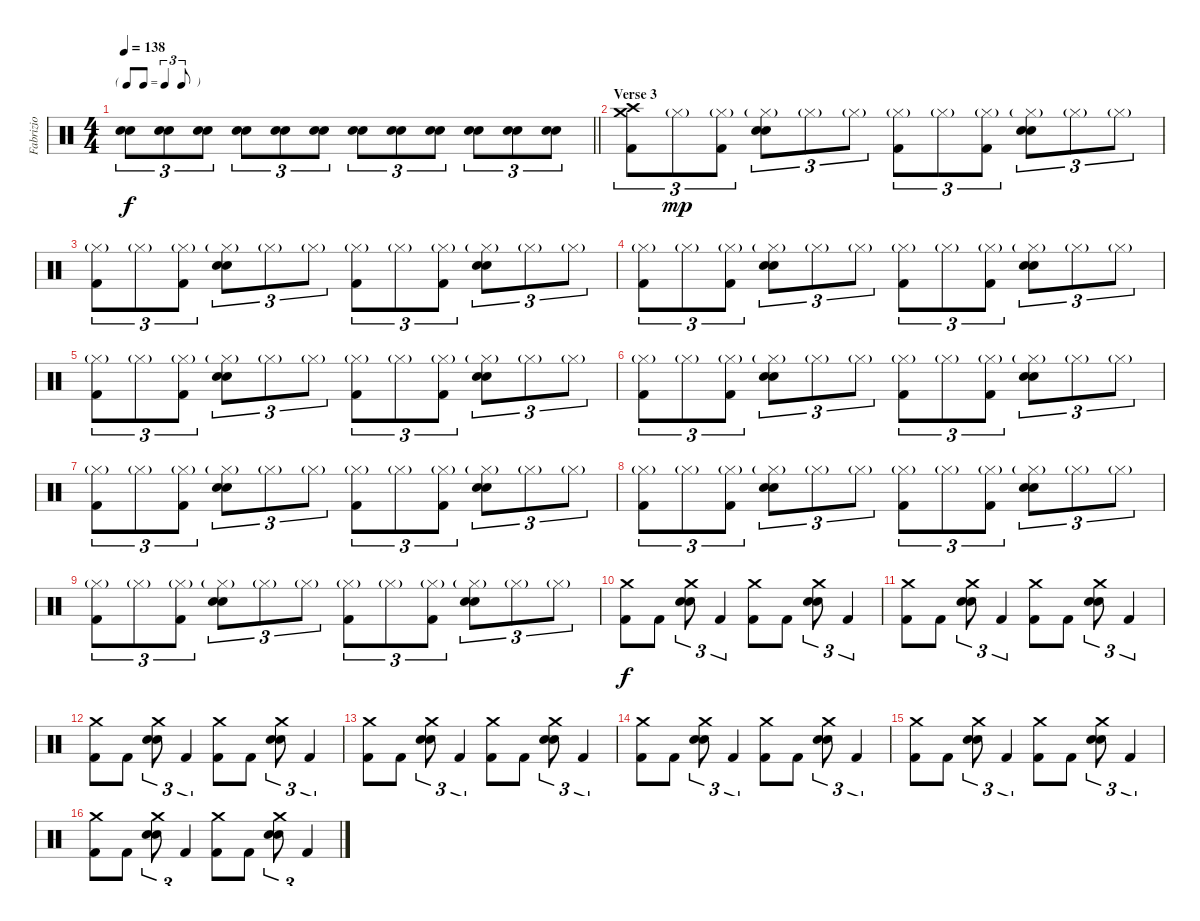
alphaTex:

\track ("Fabrizio" "Fabrizio") {instrument percussion}
\staff {score}
\articulation defaults
\ts (4 4)
\tf triplet8th
\tempo 138
\clef neutral
\barLineRight lightlight
\ks c
("Electric Snare (hit)" "Snare (hit) 2").8{tu (3 2) dy f} ("Electric Snare (hit)" "Snare (hit) 2").8{tu (3 2)} ("Electric Snare (hit)" "Snare (hit) 2").8{tu (3 2)} ("Electric Snare (hit)" "Snare (hit) 2").8{tu (3 2)} ("Electric Snare (hit)" "Snare (hit) 2").8{tu (3 2)} ("Electric Snare (hit)" "Snare (hit) 2").8{tu (3 2)} ("Electric Snare (hit)" "Snare (hit) 2").8{tu (3 2)} ("Electric Snare (hit)" "Snare (hit) 2").8{tu (3 2)} ("Electric Snare (hit)" "Snare (hit) 2").8{tu (3 2)} ("Electric Snare (hit)" "Snare (hit) 2").8{tu (3 2)} ("Electric Snare (hit)" "Snare (hit) 2").8{tu (3 2)} ("Electric Snare (hit)" "Snare (hit) 2").8{tu (3 2)} |
\section ("" "Verse 3")
("Crash medium (hit)" "Crash high (hit)" "Kick (hit) 2").8{tu (3 2)} "Hi-Hat (closed)"{g}.8{tu (3 2) dy mp} ("Hi-Hat (closed)"{g} "Kick (hit) 2").8{tu (3 2)} ("Hi-Hat (closed)"{g} "Electric Snare (hit)" "Snare (hit) 2").8{tu (3 2)} "Hi-Hat (closed)"{g}.8{tu (3 2)} "Hi-Hat (closed)"{g}.8{tu (3 2)} ("Hi-Hat (closed)"{g} "Kick (hit) 2").8{tu (3 2)} "Hi-Hat (closed)"{g}.8{tu (3 2)} ("Hi-Hat (closed)"{g} "Kick (hit) 2").8{tu (3 2)} ("Hi-Hat (closed)"{g} "Electric Snare (hit)" "Snare (hit) 2").8{tu (3 2)} "Hi-Hat (closed)"{g}.8{tu (3 2)} "Hi-Hat (closed)"{g}.8{tu (3 2)} |
("Hi-Hat (closed)"{g} "Kick (hit) 2").8{tu (3 2)} "Hi-Hat (closed)"{g}.8{tu (3 2)} ("Hi-Hat (closed)"{g} "Kick (hit) 2").8{tu (3 2)} ("Hi-Hat (closed)"{g} "Electric Snare (hit)" "Snare (hit) 2").8{tu (3 2)} "Hi-Hat (closed)"{g}.8{tu (3 2)} "Hi-Hat (closed)"{g}.8{tu (3 2)} ("Hi-Hat (closed)"{g} "Kick (hit) 2").8{tu (3 2)} "Hi-Hat (closed)"{g}.8{tu (3 2)} ("Hi-Hat (closed)"{g} "Kick (hit) 2").8{tu (3 2)} ("Hi-Hat (closed)"{g} "Electric Snare (hit)" "Snare (hit) 2").8{tu (3 2)} "Hi-Hat (closed)"{g}.8{tu (3 2)} "Hi-Hat (closed)"{g}.8{tu (3 2)} |
("Hi-Hat (closed)"{g} "Kick (hit) 2").8{tu (3 2)} "Hi-Hat (closed)"{g}.8{tu (3 2)} ("Hi-Hat (closed)"{g} "Kick (hit) 2").8{tu (3 2)} ("Hi-Hat (closed)"{g} "Electric Snare (hit)" "Snare (hit) 2").8{tu (3 2)} "Hi-Hat (closed)"{g}.8{tu (3 2)} "Hi-Hat (closed)"{g}.8{tu (3 2)} ("Hi-Hat (closed)"{g} "Kick (hit) 2").8{tu (3 2)} "Hi-Hat (closed)"{g}.8{tu (3 2)} ("Hi-Hat (closed)"{g} "Kick (hit) 2").8{tu (3 2)} ("Hi-Hat (closed)"{g} "Electric Snare (hit)" "Snare (hit) 2").8{tu (3 2)} "Hi-Hat (closed)"{g}.8{tu (3 2)} "Hi-Hat (closed)"{g}.8{tu (3 2)} |
("Hi-Hat (closed)"{g} "Kick (hit) 2").8{tu (3 2)} "Hi-Hat (closed)"{g}.8{tu (3 2)} ("Hi-Hat (closed)"{g} "Kick (hit) 2").8{tu (3 2)} ("Hi-Hat (closed)"{g} "Electric Snare (hit)" "Snare (hit) 2").8{tu (3 2)} "Hi-Hat (closed)"{g}.8{tu (3 2)} "Hi-Hat (closed)"{g}.8{tu (3 2)} ("Hi-Hat (closed)"{g} "Kick (hit) 2").8{tu (3 2)} "Hi-Hat (closed)"{g}.8{tu (3 2)} ("Hi-Hat (closed)"{g} "Kick (hit) 2").8{tu (3 2)} ("Hi-Hat (closed)"{g} "Electric Snare (hit)" "Snare (hit) 2").8{tu (3 2)} "Hi-Hat (closed)"{g}.8{tu (3 2)} "Hi-Hat (closed)"{g}.8{tu (3 2)} |
("Hi-Hat (closed)"{g} "Kick (hit) 2").8{tu (3 2)} "Hi-Hat (closed)"{g}.8{tu (3 2)} ("Hi-Hat (closed)"{g} "Kick (hit) 2").8{tu (3 2)} ("Hi-Hat (closed)"{g} "Electric Snare (hit)" "Snare (hit) 2").8{tu (3 2)} "Hi-Hat (closed)"{g}.8{tu (3 2)} "Hi-Hat (closed)"{g}.8{tu (3 2)} ("Hi-Hat (closed)"{g} "Kick (hit) 2").8{tu (3 2)} "Hi-Hat (closed)"{g}.8{tu (3 2)} ("Hi-Hat (closed)"{g} "Kick (hit) 2").8{tu (3 2)} ("Hi-Hat (closed)"{g} "Electric Snare (hit)" "Snare (hit) 2").8{tu (3 2)} "Hi-Hat (closed)"{g}.8{tu (3 2)} "Hi-Hat (closed)"{g}.8{tu (3 2)} |
("Hi-Hat (closed)"{g} "Kick (hit) 2").8{tu (3 2)} "Hi-Hat (closed)"{g}.8{tu (3 2)} ("Hi-Hat (closed)"{g} "Kick (hit) 2").8{tu (3 2)} ("Hi-Hat (closed)"{g} "Electric Snare (hit)" "Snare (hit) 2").8{tu (3 2)} "Hi-Hat (closed)"{g}.8{tu (3 2)} "Hi-Hat (closed)"{g}.8{tu (3 2)} ("Hi-Hat (closed)"{g} "Kick (hit) 2").8{tu (3 2)} "Hi-Hat (closed)"{g}.8{tu (3 2)} ("Hi-Hat (closed)"{g} "Kick (hit) 2").8{tu (3 2)} ("Hi-Hat (closed)"{g} "Electric Snare (hit)" "Snare (hit) 2").8{tu (3 2)} "Hi-Hat (closed)"{g}.8{tu (3 2)} "Hi-Hat (closed)"{g}.8{tu (3 2)} |
("Hi-Hat (closed)"{g} "Kick (hit) 2").8{tu (3 2)} "Hi-Hat (closed)"{g}.8{tu (3 2)} ("Hi-Hat (closed)"{g} "Kick (hit) 2").8{tu (3 2)} ("Hi-Hat (closed)"{g} "Electric Snare (hit)" "Snare (hit) 2").8{tu (3 2)} "Hi-Hat (closed)"{g}.8{tu (3 2)} "Hi-Hat (closed)"{g}.8{tu (3 2)} ("Hi-Hat (closed)"{g} "Kick (hit) 2").8{tu (3 2)} "Hi-Hat (closed)"{g}.8{tu (3 2)} ("Hi-Hat (closed)"{g} "Kick (hit) 2").8{tu (3 2)} ("Hi-Hat (closed)"{g} "Electric Snare (hit)" "Snare (hit) 2").8{tu (3 2)} "Hi-Hat (closed)"{g}.8{tu (3 2)} "Hi-Hat (closed)"{g}.8{tu (3 2)} |
("Hi-Hat (closed)"{g} "Kick (hit) 2").8{tu (3 2)} "Hi-Hat (closed)"{g}.8{tu (3 2)} ("Hi-Hat (closed)"{g} "Kick (hit) 2").8{tu (3 2)} ("Hi-Hat (closed)"{g} "Electric Snare (hit)" "Snare (hit) 2").8{tu (3 2)} "Hi-Hat (closed)"{g}.8{tu (3 2)} "Hi-Hat (closed)"{g}.8{tu (3 2)} ("Hi-Hat (closed)"{g} "Kick (hit) 2").8{tu (3 2)} "Hi-Hat (closed)"{g}.8{tu (3 2)} ("Hi-Hat (closed)"{g} "Kick (hit) 2").8{tu (3 2)} ("Hi-Hat (closed)"{g} "Electric Snare (hit)" "Snare (hit) 2").8{tu (3 2)} "Hi-Hat (closed)"{g}.8{tu (3 2)} "Hi-Hat (closed)"{g}.8{tu (3 2)} |
("Crash medium (hit)" "Kick (hit) 2").8{dy f} "Kick (hit) 2".8 ("Crash medium (hit)" "Electric Snare (hit)" "Snare (hit) 2").8{tu (3 2)} "Kick (hit) 2".4{tu (3 2)} ("Crash medium (hit)" "Kick (hit) 2").8 "Kick (hit) 2".8 ("Crash medium (hit)" "Electric Snare (hit)" "Snare (hit) 2").8{tu (3 2)} "Kick (hit) 2".4{tu (3 2)} |
("Crash medium (hit)" "Kick (hit) 2").8 "Kick (hit) 2".8 ("Crash medium (hit)" "Electric Snare (hit)" "Snare (hit) 2").8{tu (3 2)} "Kick (hit) 2".4{tu (3 2)} ("Crash medium (hit)" "Kick (hit) 2").8 "Kick (hit) 2".8 ("Crash medium (hit)" "Electric Snare (hit)" "Snare (hit) 2").8{tu (3 2)} "Kick (hit) 2".4{tu (3 2)} |
("Crash medium (hit)" "Kick (hit) 2").8 "Kick (hit) 2".8 ("Crash medium (hit)" "Electric Snare (hit)" "Snare (hit) 2").8{tu (3 2)} "Kick (hit) 2".4{tu (3 2)} ("Crash medium (hit)" "Kick (hit) 2").8 "Kick (hit) 2".8 ("Crash medium (hit)" "Electric Snare (hit)" "Snare (hit) 2").8{tu (3 2)} "Kick (hit) 2".4{tu (3 2)} |
("Crash medium (hit)" "Kick (hit) 2").8 "Kick (hit) 2".8 ("Crash medium (hit)" "Electric Snare (hit)" "Snare (hit) 2").8{tu (3 2)} "Kick (hit) 2".4{tu (3 2)} ("Crash medium (hit)" "Kick (hit) 2").8 "Kick (hit) 2".8 ("Crash medium (hit)" "Electric Snare (hit)" "Snare (hit) 2").8{tu (3 2)} "Kick (hit) 2".4{tu (3 2)} |
("Crash medium (hit)" "Kick (hit) 2").8 "Kick (hit) 2".8 ("Crash medium (hit)" "Electric Snare (hit)" "Snare (hit) 2").8{tu (3 2)} "Kick (hit) 2".4{tu (3 2)} ("Crash medium (hit)" "Kick (hit) 2").8 "Kick (hit) 2".8 ("Crash medium (hit)" "Electric Snare (hit)" "Snare (hit) 2").8{tu (3 2)} "Kick (hit) 2".4{tu (3 2)} |
("Crash medium (hit)" "Kick (hit) 2").8 "Kick (hit) 2".8 ("Crash medium (hit)" "Electric Snare (hit)" "Snare (hit) 2").8{tu (3 2)} "Kick (hit) 2".4{tu (3 2)} ("Crash medium (hit)" "Kick (hit) 2").8 "Kick (hit) 2".8 ("Crash medium (hit)" "Electric Snare (hit)" "Snare (hit) 2").8{tu (3 2)} "Kick (hit) 2".4{tu (3 2)} |
("Crash medium (hit)" "Kick (hit) 2").8 "Kick (hit) 2".8 ("Crash medium (hit)" "Electric Snare (hit)" "Snare (hit) 2").8{tu (3 2)} "Kick (hit) 2".4{tu (3 2)} ("Crash medium (hit)" "Kick (hit) 2").8 "Kick (hit) 2".8 ("Crash medium (hit)" "Electric Snare (hit)" "Snare (hit) 2").8{tu (3 2)} "Kick (hit) 2".4{tu (3 2)}
